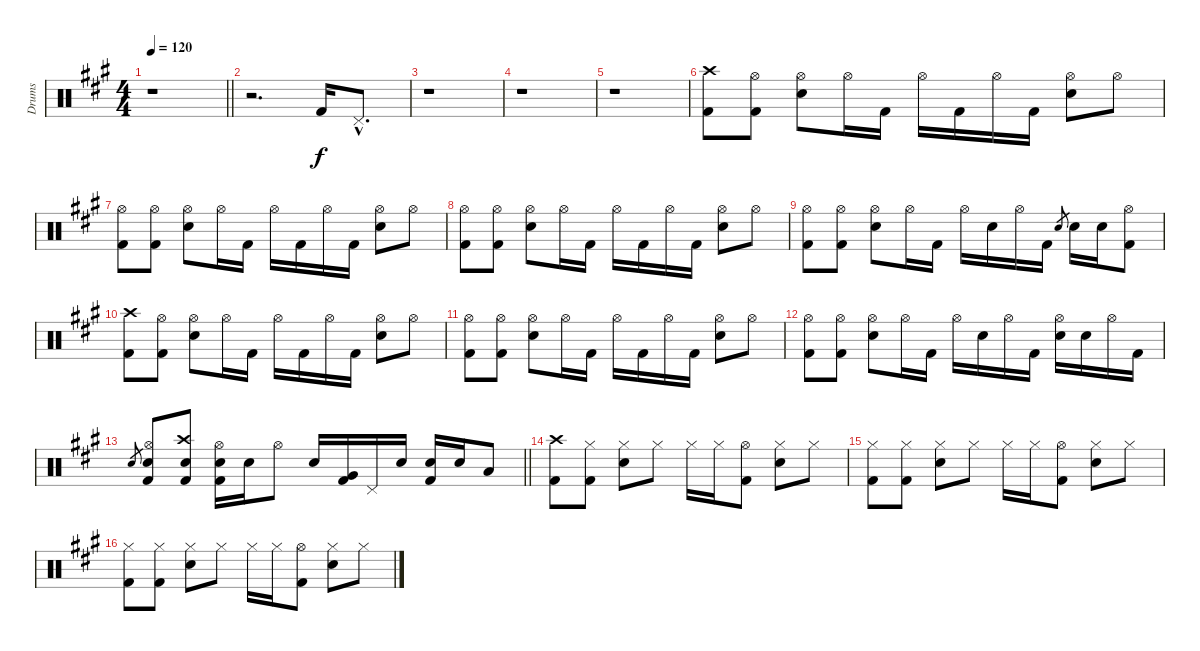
\track ("Drums" "Drums") {instrument percussion}
\staff {score}
\articulation defaults
\ts (4 4)
\tempo 120
\clef neutral
\barLineRight lightlight
\ks a
r.1{dy f} |
r.2{d} "Kick (hit) 2".16 "Pedal Hi-Hat (hit)"{hac}.8{d} |
r.1 |
r.1 |
r.1 |
("Crash high (hit)" "Kick (hit) 2").8 ("Hi-Hat (open)" "Kick (hit) 2").8 ("Hi-Hat (open)" "Electric Snare (hit)").8 "Hi-Hat (open)".16 "Kick (hit) 2".16 "Hi-Hat (open)".16 "Kick (hit) 2".16 "Hi-Hat (open)".16 "Kick (hit) 2".16 ("Hi-Hat (open)" "Electric Snare (hit)").8 "Hi-Hat (open)".8 |
("Hi-Hat (open)" "Kick (hit) 2").8 ("Hi-Hat (open)" "Kick (hit) 2").8 ("Hi-Hat (open)" "Electric Snare (hit)").8 "Hi-Hat (open)".16 "Kick (hit) 2".16 "Hi-Hat (open)".16 "Kick (hit) 2".16 "Hi-Hat (open)".16 "Kick (hit) 2".16 ("Hi-Hat (open)" "Electric Snare (hit)").8 "Hi-Hat (open)".8 |
("Hi-Hat (open)" "Kick (hit) 2").8 ("Hi-Hat (open)" "Kick (hit) 2").8 ("Hi-Hat (open)" "Electric Snare (hit)").8 "Hi-Hat (open)".16 "Kick (hit) 2".16 "Hi-Hat (open)".16 "Kick (hit) 2".16 "Hi-Hat (open)".16 "Kick (hit) 2".16 ("Hi-Hat (open)" "Electric Snare (hit)").8 "Hi-Hat (open)".8 |
("Hi-Hat (open)" "Kick (hit) 2").8 ("Hi-Hat (open)" "Kick (hit) 2").8 ("Hi-Hat (open)" "Electric Snare (hit)").8 "Hi-Hat (open)".16 "Kick (hit) 2".16 "Hi-Hat (open)".16 "Electric Snare (hit)".16 "Hi-Hat (open)".16 "Kick (hit) 2".16 "Electric Snare (hit)".8{gr} "Electric Snare (hit)".16 "Electric Snare (hit)".16 ("Hi-Hat (open)" "Kick (hit) 2").8 |
("Crash high (hit)" "Kick (hit) 2").8 ("Hi-Hat (open)" "Kick (hit) 2").8 ("Hi-Hat (open)" "Electric Snare (hit)").8 "Hi-Hat (open)".16 "Kick (hit) 2".16 "Hi-Hat (open)".16 "Kick (hit) 2".16 "Hi-Hat (open)".16 "Kick (hit) 2".16 ("Hi-Hat (open)" "Electric Snare (hit)").8 "Hi-Hat (open)".8 |
("Hi-Hat (open)" "Kick (hit) 2").8 ("Hi-Hat (open)" "Kick (hit) 2").8 ("Hi-Hat (open)" "Electric Snare (hit)").8 "Hi-Hat (open)".16 "Kick (hit) 2".16 "Hi-Hat (open)".16 "Kick (hit) 2".16 "Hi-Hat (open)".16 "Kick (hit) 2".16 ("Hi-Hat (open)" "Electric Snare (hit)").8 "Hi-Hat (open)".8 |
("Hi-Hat (open)" "Kick (hit) 2").8 ("Hi-Hat (open)" "Kick (hit) 2").8 ("Hi-Hat (open)" "Electric Snare (hit)").8 "Hi-Hat (open)".16 "Kick (hit) 2".16 "Hi-Hat (open)".16 "Electric Snare (hit)".16 "Hi-Hat (open)".16 "Kick (hit) 2".16 ("Hi-Hat (open)" "Electric Snare (hit)").16 "Electric Snare (hit)".16 "Hi-Hat (open)".16 "Kick (hit) 2".16 |
\barLineRight lightlight "Electric Snare (hit)".8{gr}
("Hi-Hat (open)" "Electric Snare (hit)" "Kick (hit) 2").8 ("Crash high (hit)" "Electric Snare (hit)" "Kick (hit) 2").8 ("Hi-Hat (open)" "Electric Snare (hit)" "Kick (hit) 2").16 "Electric Snare (hit)".16 "Hi-Hat (open)".8 "Electric Snare (hit)".16 ("Very Low Tom (hit)" "Kick (hit) 2").16 "Pedal Hi-Hat (hit)".16 "Electric Snare (hit)".16 ("Electric Snare (hit)" "Kick (hit) 2").16 "Electric Snare (hit)".16 "Low Floor Tom (hit)".8 |
("Crash high (hit)" "Kick (hit) 2").8 ("Hi-Hat (closed)" "Kick (hit) 2").8 ("Hi-Hat (closed)" "Electric Snare (hit)").8 "Hi-Hat (closed)".8 "Hi-Hat (closed)".16 "Hi-Hat (closed)".16 ("Hi-Hat (open)" "Kick (hit) 2").8 ("Hi-Hat (closed)" "Electric Snare (hit)").8 "Hi-Hat (closed)".8 |
("Hi-Hat (closed)" "Kick (hit) 2").8 ("Hi-Hat (closed)" "Kick (hit) 2").8 ("Hi-Hat (closed)" "Electric Snare (hit)").8 "Hi-Hat (closed)".8 "Hi-Hat (closed)".16 "Hi-Hat (closed)".16 ("Hi-Hat (open)" "Kick (hit) 2").8 ("Hi-Hat (closed)" "Electric Snare (hit)").8 "Hi-Hat (closed)".8 |
("Hi-Hat (closed)" "Kick (hit) 2").8 ("Hi-Hat (closed)" "Kick (hit) 2").8 ("Hi-Hat (closed)" "Electric Snare (hit)").8 "Hi-Hat (closed)".8 "Hi-Hat (closed)".16 "Hi-Hat (closed)".16 ("Hi-Hat (open)" "Kick (hit) 2").8 ("Hi-Hat (closed)" "Electric Snare (hit)").8 "Hi-Hat (closed)".8
